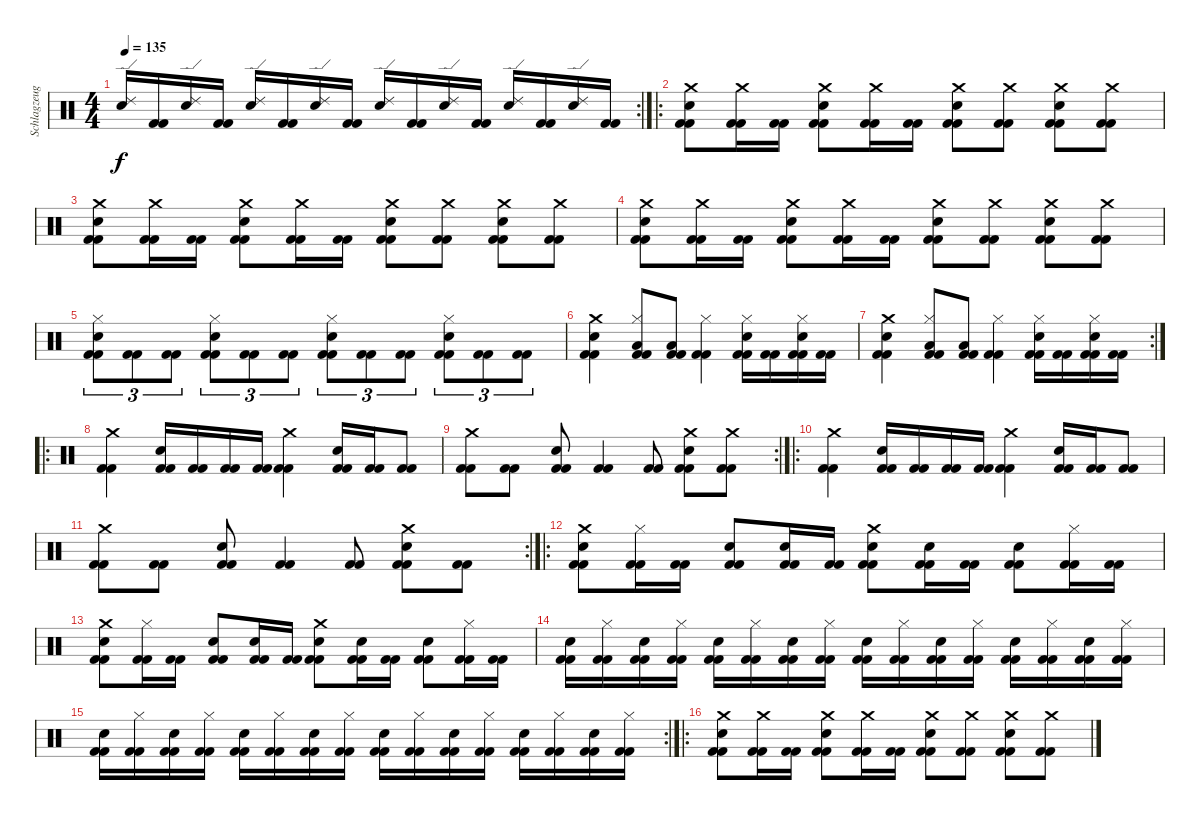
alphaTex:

\track ("Schlagzeug" "Schlagzeug") {instrument percussion}
\staff {score}
\articulation defaults
\rc 2
\ts (4 4)
\tempo 135
\clef neutral
\ks c
("Ride (edge) 2" "Snare (hit) 2").16{dy f} ("Kick (hit) 2" "Kick (hit) 2").16 ("Ride (edge) 2" "Snare (hit) 2").16 ("Kick (hit) 2" "Kick (hit) 2").16 ("Ride (edge) 2" "Snare (hit) 2").16 ("Kick (hit) 2" "Kick (hit) 2").16 ("Ride (edge) 2" "Snare (hit) 2").16 ("Kick (hit) 2" "Kick (hit) 2").16 ("Ride (edge) 2" "Snare (hit) 2").16 ("Kick (hit) 2" "Kick (hit) 2").16 ("Ride (edge) 2" "Snare (hit) 2").16 ("Kick (hit) 2" "Kick (hit) 2").16 ("Ride (edge) 2" "Snare (hit) 2").16 ("Kick (hit) 2" "Kick (hit) 2").16 ("Ride (edge) 2" "Snare (hit) 2").16 ("Kick (hit) 2" "Kick (hit) 2").16 |
\ro
("Crash medium (hit)" "Snare (hit) 2" "Kick (hit) 2" "Kick (hit) 2").8 ("Crash medium (hit)" "Kick (hit) 2" "Kick (hit) 2").16 ("Kick (hit) 2" "Kick (hit) 2").16 ("Crash medium (hit)" "Snare (hit) 2" "Kick (hit) 2" "Kick (hit) 2").8 ("Crash medium (hit)" "Kick (hit) 2" "Kick (hit) 2").16 ("Kick (hit) 2" "Kick (hit) 2").16 ("Crash medium (hit)" "Snare (hit) 2" "Kick (hit) 2" "Kick (hit) 2").8 ("Crash medium (hit)" "Kick (hit) 2" "Kick (hit) 2").8 ("Crash medium (hit)" "Snare (hit) 2" "Kick (hit) 2" "Kick (hit) 2").8 ("Crash medium (hit)" "Kick (hit) 2" "Kick (hit) 2").8 |
("Crash medium (hit)" "Snare (hit) 2" "Kick (hit) 2" "Kick (hit) 2").8 ("Crash medium (hit)" "Kick (hit) 2" "Kick (hit) 2").16 ("Kick (hit) 2" "Kick (hit) 2").16 ("Crash medium (hit)" "Snare (hit) 2" "Kick (hit) 2" "Kick (hit) 2").8 ("Crash medium (hit)" "Kick (hit) 2" "Kick (hit) 2").16 ("Kick (hit) 2" "Kick (hit) 2").16 ("Crash medium (hit)" "Snare (hit) 2" "Kick (hit) 2" "Kick (hit) 2").8 ("Crash medium (hit)" "Kick (hit) 2" "Kick (hit) 2").8 ("Crash medium (hit)" "Snare (hit) 2" "Kick (hit) 2" "Kick (hit) 2").8 ("Crash medium (hit)" "Kick (hit) 2" "Kick (hit) 2").8 |
("Crash medium (hit)" "Snare (hit) 2" "Kick (hit) 2" "Kick (hit) 2").8 ("Crash medium (hit)" "Kick (hit) 2" "Kick (hit) 2").16 ("Kick (hit) 2" "Kick (hit) 2").16 ("Crash medium (hit)" "Snare (hit) 2" "Kick (hit) 2" "Kick (hit) 2").8 ("Crash medium (hit)" "Kick (hit) 2" "Kick (hit) 2").16 ("Kick (hit) 2" "Kick (hit) 2").16 ("Crash medium (hit)" "Snare (hit) 2" "Kick (hit) 2" "Kick (hit) 2").8 ("Crash medium (hit)" "Kick (hit) 2" "Kick (hit) 2").8 ("Crash medium (hit)" "Snare (hit) 2" "Kick (hit) 2" "Kick (hit) 2").8 ("Crash medium (hit)" "Kick (hit) 2" "Kick (hit) 2").8 |
("Hi-Hat (closed)" "Snare (hit) 2" "Kick (hit) 2" "Kick (hit) 2").8{tu (3 2)} ("Kick (hit) 2" "Kick (hit) 2").8{tu (3 2)} ("Kick (hit) 2" "Kick (hit) 2").8{tu (3 2)} ("Hi-Hat (closed)" "Snare (hit) 2" "Kick (hit) 2" "Kick (hit) 2").8{tu (3 2)} ("Kick (hit) 2" "Kick (hit) 2").8{tu (3 2)} ("Kick (hit) 2" "Kick (hit) 2").8{tu (3 2)} ("Hi-Hat (closed)" "Snare (hit) 2" "Kick (hit) 2" "Kick (hit) 2").8{tu (3 2)} ("Kick (hit) 2" "Kick (hit) 2").8{tu (3 2)} ("Kick (hit) 2" "Kick (hit) 2").8{tu (3 2)} ("Hi-Hat (closed)" "Snare (hit) 2" "Kick (hit) 2" "Kick (hit) 2").8{tu (3 2)} ("Kick (hit) 2" "Kick (hit) 2").8{tu (3 2)} ("Kick (hit) 2" "Kick (hit) 2").8{tu (3 2)} |
("Crash medium (hit)" "Snare (hit) 2" "Kick (hit) 2" "Kick (hit) 2").4 ("Hi-Hat (closed)" "Low Floor Tom (hit)" "Kick (hit) 2" "Kick (hit) 2").8 ("Low Floor Tom (hit)" "Kick (hit) 2" "Kick (hit) 2").8 ("Hi-Hat (closed)" "Kick (hit) 2" "Kick (hit) 2").4 ("Hi-Hat (closed)" "Snare (hit) 2" "Kick (hit) 2" "Kick (hit) 2").16 ("Kick (hit) 2" "Kick (hit) 2").16 ("Hi-Hat (closed)" "Snare (hit) 2" "Kick (hit) 2" "Kick (hit) 2").16 ("Kick (hit) 2" "Kick (hit) 2").16 |
\rc 2
("Crash medium (hit)" "Snare (hit) 2" "Kick (hit) 2" "Kick (hit) 2").4 ("Hi-Hat (closed)" "Low Floor Tom (hit)" "Kick (hit) 2" "Kick (hit) 2").8 ("Low Floor Tom (hit)" "Kick (hit) 2" "Kick (hit) 2").8 ("Hi-Hat (closed)" "Kick (hit) 2" "Kick (hit) 2").4 ("Hi-Hat (closed)" "Snare (hit) 2" "Kick (hit) 2" "Kick (hit) 2").16 ("Kick (hit) 2" "Kick (hit) 2").16 ("Hi-Hat (closed)" "Snare (hit) 2" "Kick (hit) 2" "Kick (hit) 2").16 ("Kick (hit) 2" "Kick (hit) 2").16 |
\ro
("Crash medium (hit)" "Kick (hit) 2" "Kick (hit) 2").4 ("Snare (hit) 2" "Kick (hit) 2" "Kick (hit) 2").16 ("Kick (hit) 2" "Kick (hit) 2").16 ("Kick (hit) 2" "Kick (hit) 2").16 ("Kick (hit) 2" "Kick (hit) 2").16 ("Crash medium (hit)" "Kick (hit) 2" "Kick (hit) 2").4 ("Snare (hit) 2" "Kick (hit) 2" "Kick (hit) 2").16 ("Kick (hit) 2" "Kick (hit) 2").16 ("Kick (hit) 2" "Kick (hit) 2").8 |
\rc 2
("Crash medium (hit)" "Kick (hit) 2" "Kick (hit) 2").8 ("Kick (hit) 2" "Kick (hit) 2").8 ("Snare (hit) 2" "Kick (hit) 2" "Kick (hit) 2").8 ("Kick (hit) 2" "Kick (hit) 2").4 ("Kick (hit) 2" "Kick (hit) 2").8 ("Crash medium (hit)" "Snare (hit) 2" "Kick (hit) 2" "Kick (hit) 2").8 ("Crash medium (hit)" "Kick (hit) 2" "Kick (hit) 2").8 |
\ro
("Crash medium (hit)" "Kick (hit) 2" "Kick (hit) 2").4 ("Snare (hit) 2" "Kick (hit) 2" "Kick (hit) 2").16 ("Kick (hit) 2" "Kick (hit) 2").16 ("Kick (hit) 2" "Kick (hit) 2").16 ("Kick (hit) 2" "Kick (hit) 2").16 ("Crash medium (hit)" "Kick (hit) 2" "Kick (hit) 2").4 ("Snare (hit) 2" "Kick (hit) 2" "Kick (hit) 2").16 ("Kick (hit) 2" "Kick (hit) 2").16 ("Kick (hit) 2" "Kick (hit) 2").8 |
\rc 2
("Crash medium (hit)" "Kick (hit) 2" "Kick (hit) 2").8 ("Kick (hit) 2" "Kick (hit) 2").8 ("Snare (hit) 2" "Kick (hit) 2" "Kick (hit) 2").8 ("Kick (hit) 2" "Kick (hit) 2").4 ("Kick (hit) 2" "Kick (hit) 2").8 ("Crash medium (hit)" "Snare (hit) 2" "Kick (hit) 2" "Kick (hit) 2").8 ("Kick (hit) 2" "Kick (hit) 2").8 |
\ro
("Crash medium (hit)" "Snare (hit) 2" "Kick (hit) 2" "Kick (hit) 2").8 ("Hi-Hat (closed)" "Kick (hit) 2" "Kick (hit) 2").16 ("Kick (hit) 2" "Kick (hit) 2").16 ("Snare (hit) 2" "Kick (hit) 2" "Kick (hit) 2").8 ("Snare (hit) 2" "Kick (hit) 2" "Kick (hit) 2").16 ("Kick (hit) 2" "Kick (hit) 2").16 ("Crash medium (hit)" "Snare (hit) 2" "Kick (hit) 2" "Kick (hit) 2").8 ("Snare (hit) 2" "Kick (hit) 2" "Kick (hit) 2").16 ("Kick (hit) 2" "Kick (hit) 2").16 ("Snare (hit) 2" "Kick (hit) 2" "Kick (hit) 2").8 ("Hi-Hat (closed)" "Kick (hit) 2" "Kick (hit) 2").16 ("Kick (hit) 2" "Kick (hit) 2").16 |
("Crash medium (hit)" "Snare (hit) 2" "Kick (hit) 2" "Kick (hit) 2").8 ("Hi-Hat (closed)" "Kick (hit) 2" "Kick (hit) 2").16 ("Kick (hit) 2" "Kick (hit) 2").16 ("Snare (hit) 2" "Kick (hit) 2" "Kick (hit) 2").8 ("Snare (hit) 2" "Kick (hit) 2" "Kick (hit) 2").16 ("Kick (hit) 2" "Kick (hit) 2").16 ("Crash medium (hit)" "Snare (hit) 2" "Kick (hit) 2" "Kick (hit) 2").8 ("Snare (hit) 2" "Kick (hit) 2" "Kick (hit) 2").16 ("Kick (hit) 2" "Kick (hit) 2").16 ("Snare (hit) 2" "Kick (hit) 2" "Kick (hit) 2").8 ("Hi-Hat (closed)" "Kick (hit) 2" "Kick (hit) 2").16 ("Kick (hit) 2" "Kick (hit) 2").16 |
("Snare (hit) 2" "Kick (hit) 2" "Kick (hit) 2").16 ("Hi-Hat (closed)" "Kick (hit) 2" "Kick (hit) 2").16 ("Snare (hit) 2" "Kick (hit) 2" "Kick (hit) 2").16 ("Hi-Hat (closed)" "Kick (hit) 2" "Kick (hit) 2").16 ("Snare (hit) 2" "Kick (hit) 2" "Kick (hit) 2").16 ("Hi-Hat (closed)" "Kick (hit) 2" "Kick (hit) 2").16 ("Snare (hit) 2" "Kick (hit) 2" "Kick (hit) 2").16 ("Hi-Hat (closed)" "Kick (hit) 2" "Kick (hit) 2").16 ("Snare (hit) 2" "Kick (hit) 2" "Kick (hit) 2").16 ("Hi-Hat (closed)" "Kick (hit) 2" "Kick (hit) 2").16 ("Snare (hit) 2" "Kick (hit) 2" "Kick (hit) 2").16 ("Hi-Hat (closed)" "Kick (hit) 2" "Kick (hit) 2").16 ("Snare (hit) 2" "Kick (hit) 2" "Kick (hit) 2").16 ("Hi-Hat (closed)" "Kick (hit) 2" "Kick (hit) 2").16 ("Snare (hit) 2" "Kick (hit) 2" "Kick (hit) 2").16 ("Hi-Hat (closed)" "Kick (hit) 2" "Kick (hit) 2").16 |
\rc 2
("Snare (hit) 2" "Kick (hit) 2" "Kick (hit) 2").16 ("Hi-Hat (closed)" "Kick (hit) 2" "Kick (hit) 2").16 ("Snare (hit) 2" "Kick (hit) 2" "Kick (hit) 2").16 ("Hi-Hat (closed)" "Kick (hit) 2" "Kick (hit) 2").16 ("Snare (hit) 2" "Kick (hit) 2" "Kick (hit) 2").16 ("Hi-Hat (closed)" "Kick (hit) 2" "Kick (hit) 2").16 ("Snare (hit) 2" "Kick (hit) 2" "Kick (hit) 2").16 ("Hi-Hat (closed)" "Kick (hit) 2" "Kick (hit) 2").16 ("Snare (hit) 2" "Kick (hit) 2" "Kick (hit) 2").16 ("Hi-Hat (closed)" "Kick (hit) 2" "Kick (hit) 2").16 ("Snare (hit) 2" "Kick (hit) 2" "Kick (hit) 2").16 ("Hi-Hat (closed)" "Kick (hit) 2" "Kick (hit) 2").16 ("Snare (hit) 2" "Kick (hit) 2" "Kick (hit) 2").16 ("Hi-Hat (closed)" "Kick (hit) 2" "Kick (hit) 2").16 ("Snare (hit) 2" "Kick (hit) 2" "Kick (hit) 2").16 ("Hi-Hat (closed)" "Kick (hit) 2" "Kick (hit) 2").16 |
\ro
("Crash medium (hit)" "Snare (hit) 2" "Kick (hit) 2" "Kick (hit) 2").8 ("Crash medium (hit)" "Kick (hit) 2" "Kick (hit) 2").16 ("Kick (hit) 2" "Kick (hit) 2").16 ("Crash medium (hit)" "Snare (hit) 2" "Kick (hit) 2" "Kick (hit) 2").8 ("Crash medium (hit)" "Kick (hit) 2" "Kick (hit) 2").16 ("Kick (hit) 2" "Kick (hit) 2").16 ("Crash medium (hit)" "Snare (hit) 2" "Kick (hit) 2" "Kick (hit) 2").8 ("Crash medium (hit)" "Kick (hit) 2" "Kick (hit) 2").8 ("Crash medium (hit)" "Snare (hit) 2" "Kick (hit) 2" "Kick (hit) 2").8 ("Crash medium (hit)" "Kick (hit) 2" "Kick (hit) 2").8
